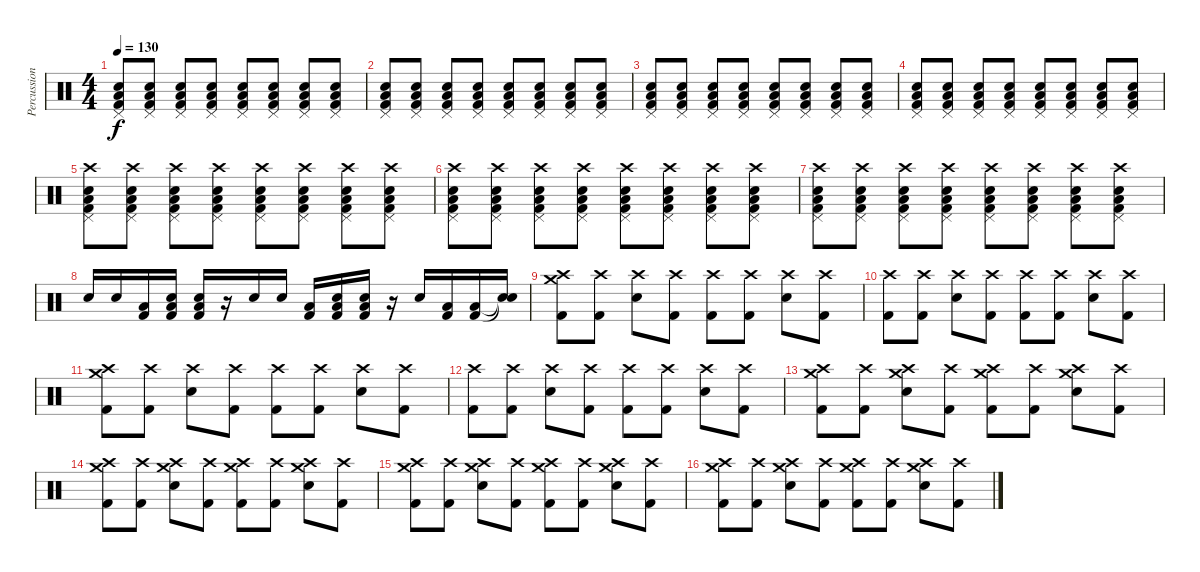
\track ("Percussion" "Percussion") {instrument percussion}
\staff {score}
\articulation defaults
\ts (4 4)
\tempo 130
\clef neutral
\ks c
("Low Tom (hit)" "Snare (hit) 2" "Pedal Hi-Hat (hit)" "Kick (hit) 2").8{dy f} ("Low Tom (hit)" "Snare (hit) 2" "Pedal Hi-Hat (hit)" "Kick (hit) 2").8 ("Low Tom (hit)" "Snare (hit) 2" "Pedal Hi-Hat (hit)" "Kick (hit) 2").8 ("Low Tom (hit)" "Snare (hit) 2" "Pedal Hi-Hat (hit)" "Kick (hit) 2").8 ("Low Tom (hit)" "Snare (hit) 2" "Pedal Hi-Hat (hit)" "Kick (hit) 2").8 ("Low Tom (hit)" "Snare (hit) 2" "Pedal Hi-Hat (hit)" "Kick (hit) 2").8 ("Low Tom (hit)" "Snare (hit) 2" "Pedal Hi-Hat (hit)" "Kick (hit) 2").8 ("Low Tom (hit)" "Snare (hit) 2" "Pedal Hi-Hat (hit)" "Kick (hit) 2").8 |
("Low Tom (hit)" "Snare (hit) 2" "Pedal Hi-Hat (hit)" "Kick (hit) 2").8 ("Low Tom (hit)" "Snare (hit) 2" "Pedal Hi-Hat (hit)" "Kick (hit) 2").8 ("Low Tom (hit)" "Snare (hit) 2" "Pedal Hi-Hat (hit)" "Kick (hit) 2").8 ("Low Tom (hit)" "Snare (hit) 2" "Pedal Hi-Hat (hit)" "Kick (hit) 2").8 ("Low Tom (hit)" "Snare (hit) 2" "Pedal Hi-Hat (hit)" "Kick (hit) 2").8 ("Low Tom (hit)" "Snare (hit) 2" "Pedal Hi-Hat (hit)" "Kick (hit) 2").8 ("Low Tom (hit)" "Snare (hit) 2" "Pedal Hi-Hat (hit)" "Kick (hit) 2").8 ("Low Tom (hit)" "Snare (hit) 2" "Pedal Hi-Hat (hit)" "Kick (hit) 2").8 |
("Low Tom (hit)" "Snare (hit) 2" "Pedal Hi-Hat (hit)" "Kick (hit) 2").8 ("Low Tom (hit)" "Snare (hit) 2" "Pedal Hi-Hat (hit)" "Kick (hit) 2").8 ("Low Tom (hit)" "Snare (hit) 2" "Pedal Hi-Hat (hit)" "Kick (hit) 2").8 ("Low Tom (hit)" "Snare (hit) 2" "Pedal Hi-Hat (hit)" "Kick (hit) 2").8 ("Low Tom (hit)" "Snare (hit) 2" "Pedal Hi-Hat (hit)" "Kick (hit) 2").8 ("Low Tom (hit)" "Snare (hit) 2" "Pedal Hi-Hat (hit)" "Kick (hit) 2").8 ("Low Tom (hit)" "Snare (hit) 2" "Pedal Hi-Hat (hit)" "Kick (hit) 2").8 ("Low Tom (hit)" "Snare (hit) 2" "Pedal Hi-Hat (hit)" "Kick (hit) 2").8 |
("Low Tom (hit)" "Snare (hit) 2" "Pedal Hi-Hat (hit)" "Kick (hit) 2").8 ("Low Tom (hit)" "Snare (hit) 2" "Pedal Hi-Hat (hit)" "Kick (hit) 2").8 ("Low Tom (hit)" "Snare (hit) 2" "Pedal Hi-Hat (hit)" "Kick (hit) 2").8 ("Low Tom (hit)" "Snare (hit) 2" "Pedal Hi-Hat (hit)" "Kick (hit) 2").8 ("Low Tom (hit)" "Snare (hit) 2" "Pedal Hi-Hat (hit)" "Kick (hit) 2").8 ("Low Tom (hit)" "Snare (hit) 2" "Pedal Hi-Hat (hit)" "Kick (hit) 2").8 ("Low Tom (hit)" "Snare (hit) 2" "Pedal Hi-Hat (hit)" "Kick (hit) 2").8 ("Low Tom (hit)" "Snare (hit) 2" "Pedal Hi-Hat (hit)" "Kick (hit) 2").8 |
("Low Tom (hit)" "Snare (hit) 2" "Pedal Hi-Hat (hit)" "Kick (hit) 2" "Crash high (hit)").8 ("Low Tom (hit)" "Snare (hit) 2" "Pedal Hi-Hat (hit)" "Kick (hit) 2" "Crash high (hit)").8 ("Low Tom (hit)" "Snare (hit) 2" "Pedal Hi-Hat (hit)" "Kick (hit) 2" "Crash high (hit)").8 ("Low Tom (hit)" "Snare (hit) 2" "Pedal Hi-Hat (hit)" "Kick (hit) 2" "Crash high (hit)").8 ("Low Tom (hit)" "Snare (hit) 2" "Pedal Hi-Hat (hit)" "Kick (hit) 2" "Crash high (hit)").8 ("Low Tom (hit)" "Snare (hit) 2" "Pedal Hi-Hat (hit)" "Kick (hit) 2" "Crash high (hit)").8 ("Low Tom (hit)" "Snare (hit) 2" "Pedal Hi-Hat (hit)" "Kick (hit) 2" "Crash high (hit)").8 ("Low Tom (hit)" "Snare (hit) 2" "Pedal Hi-Hat (hit)" "Kick (hit) 2" "Crash high (hit)").8 |
("Low Tom (hit)" "Snare (hit) 2" "Pedal Hi-Hat (hit)" "Kick (hit) 2" "Crash high (hit)").8 ("Low Tom (hit)" "Snare (hit) 2" "Pedal Hi-Hat (hit)" "Kick (hit) 2" "Crash high (hit)").8 ("Low Tom (hit)" "Snare (hit) 2" "Pedal Hi-Hat (hit)" "Kick (hit) 2" "Crash high (hit)").8 ("Low Tom (hit)" "Snare (hit) 2" "Pedal Hi-Hat (hit)" "Kick (hit) 2" "Crash high (hit)").8 ("Low Tom (hit)" "Snare (hit) 2" "Pedal Hi-Hat (hit)" "Kick (hit) 2" "Crash high (hit)").8 ("Low Tom (hit)" "Snare (hit) 2" "Pedal Hi-Hat (hit)" "Kick (hit) 2" "Crash high (hit)").8 ("Low Tom (hit)" "Snare (hit) 2" "Pedal Hi-Hat (hit)" "Kick (hit) 2" "Crash high (hit)").8 ("Low Tom (hit)" "Snare (hit) 2" "Pedal Hi-Hat (hit)" "Kick (hit) 2" "Crash high (hit)").8 |
("Low Tom (hit)" "Snare (hit) 2" "Pedal Hi-Hat (hit)" "Kick (hit) 2" "Crash high (hit)").8 ("Low Tom (hit)" "Snare (hit) 2" "Pedal Hi-Hat (hit)" "Kick (hit) 2" "Crash high (hit)").8 ("Low Tom (hit)" "Snare (hit) 2" "Pedal Hi-Hat (hit)" "Kick (hit) 2" "Crash high (hit)").8 ("Low Tom (hit)" "Snare (hit) 2" "Pedal Hi-Hat (hit)" "Kick (hit) 2" "Crash high (hit)").8 ("Low Tom (hit)" "Snare (hit) 2" "Pedal Hi-Hat (hit)" "Kick (hit) 2" "Crash high (hit)").8 ("Low Tom (hit)" "Snare (hit) 2" "Pedal Hi-Hat (hit)" "Kick (hit) 2" "Crash high (hit)").8 ("Low Tom (hit)" "Snare (hit) 2" "Pedal Hi-Hat (hit)" "Kick (hit) 2" "Crash high (hit)").8 ("Low Tom (hit)" "Snare (hit) 2" "Pedal Hi-Hat (hit)" "Kick (hit) 2" "Crash high (hit)").8 |
"Snare (hit) 2".16 "Snare (hit) 2".16 ("Low Tom (hit)" "Kick (hit) 2").16 ("Snare (hit) 2" "Low Tom (hit)" "Kick (hit) 2").16 ("Snare (hit) 2" "Low Tom (hit)" "Kick (hit) 2").16 r.16 "Snare (hit) 2".16 "Snare (hit) 2".16 ("Low Tom (hit)" "Kick (hit) 2").16 ("Snare (hit) 2" "Low Tom (hit)" "Kick (hit) 2").16 ("Snare (hit) 2" "Low Tom (hit)" "Kick (hit) 2").16 r.16 "Snare (hit) 2".16 ("Low Tom (hit)" "Kick (hit) 2").16 ("Low Tom (hit)" "Kick (hit) 2").16 ("Snare (hit)"{t} "Snare (hit)"{t}).16 |
("Crash high (hit)" "Kick (hit) 2" "Crash medium (hit)").8 ("Crash high (hit)" "Kick (hit) 2").8 ("Crash high (hit)" "Snare (hit) 2").8 ("Crash high (hit)" "Kick (hit) 2").8 ("Crash high (hit)" "Kick (hit) 2").8 ("Crash high (hit)" "Kick (hit) 2").8 ("Crash high (hit)" "Snare (hit) 2").8 ("Crash high (hit)" "Kick (hit) 2").8 |
("Crash high (hit)" "Kick (hit) 2").8 ("Crash high (hit)" "Kick (hit) 2").8 ("Crash high (hit)" "Snare (hit) 2").8 ("Crash high (hit)" "Kick (hit) 2").8 ("Crash high (hit)" "Kick (hit) 2").8 ("Crash high (hit)" "Kick (hit) 2").8 ("Crash high (hit)" "Snare (hit) 2").8 ("Crash high (hit)" "Kick (hit) 2").8 |
("Crash high (hit)" "Kick (hit) 2" "Crash medium (hit)").8 ("Crash high (hit)" "Kick (hit) 2").8 ("Crash high (hit)" "Snare (hit) 2").8 ("Crash high (hit)" "Kick (hit) 2").8 ("Crash high (hit)" "Kick (hit) 2").8 ("Crash high (hit)" "Kick (hit) 2").8 ("Crash high (hit)" "Snare (hit) 2").8 ("Crash high (hit)" "Kick (hit) 2").8 |
("Crash high (hit)" "Kick (hit) 2").8 ("Crash high (hit)" "Kick (hit) 2").8 ("Crash high (hit)" "Snare (hit) 2").8 ("Crash high (hit)" "Kick (hit) 2").8 ("Crash high (hit)" "Kick (hit) 2").8 ("Crash high (hit)" "Kick (hit) 2").8 ("Crash high (hit)" "Snare (hit) 2").8 ("Crash high (hit)" "Kick (hit) 2").8 |
("Crash high (hit)" "Kick (hit) 2" "Crash medium (hit)").8 ("Crash high (hit)" "Kick (hit) 2").8 ("Crash high (hit)" "Snare (hit) 2" "Crash medium (hit)").8 ("Crash high (hit)" "Kick (hit) 2").8 ("Crash high (hit)" "Kick (hit) 2" "Crash medium (hit)").8 ("Crash high (hit)" "Kick (hit) 2").8 ("Crash high (hit)" "Snare (hit) 2" "Crash medium (hit)").8 ("Crash high (hit)" "Kick (hit) 2").8 |
("Crash high (hit)" "Kick (hit) 2" "Crash medium (hit)").8 ("Crash high (hit)" "Kick (hit) 2").8 ("Crash high (hit)" "Snare (hit) 2" "Crash medium (hit)").8 ("Crash high (hit)" "Kick (hit) 2").8 ("Crash high (hit)" "Kick (hit) 2" "Crash medium (hit)").8 ("Crash high (hit)" "Kick (hit) 2").8 ("Crash high (hit)" "Snare (hit) 2" "Crash medium (hit)").8 ("Crash high (hit)" "Kick (hit) 2").8 |
("Crash high (hit)" "Kick (hit) 2" "Crash medium (hit)").8 ("Crash high (hit)" "Kick (hit) 2").8 ("Crash high (hit)" "Snare (hit) 2" "Crash medium (hit)").8 ("Crash high (hit)" "Kick (hit) 2").8 ("Crash high (hit)" "Kick (hit) 2" "Crash medium (hit)").8 ("Crash high (hit)" "Kick (hit) 2").8 ("Crash high (hit)" "Snare (hit) 2" "Crash medium (hit)").8 ("Crash high (hit)" "Kick (hit) 2").8 |
("Crash high (hit)" "Kick (hit) 2" "Crash medium (hit)").8 ("Crash high (hit)" "Kick (hit) 2").8 ("Crash high (hit)" "Snare (hit) 2" "Crash medium (hit)").8 ("Crash high (hit)" "Kick (hit) 2").8 ("Crash high (hit)" "Kick (hit) 2" "Crash medium (hit)").8 ("Crash high (hit)" "Kick (hit) 2").8 ("Crash high (hit)" "Snare (hit) 2" "Crash medium (hit)").8 ("Crash high (hit)" "Kick (hit) 2").8
